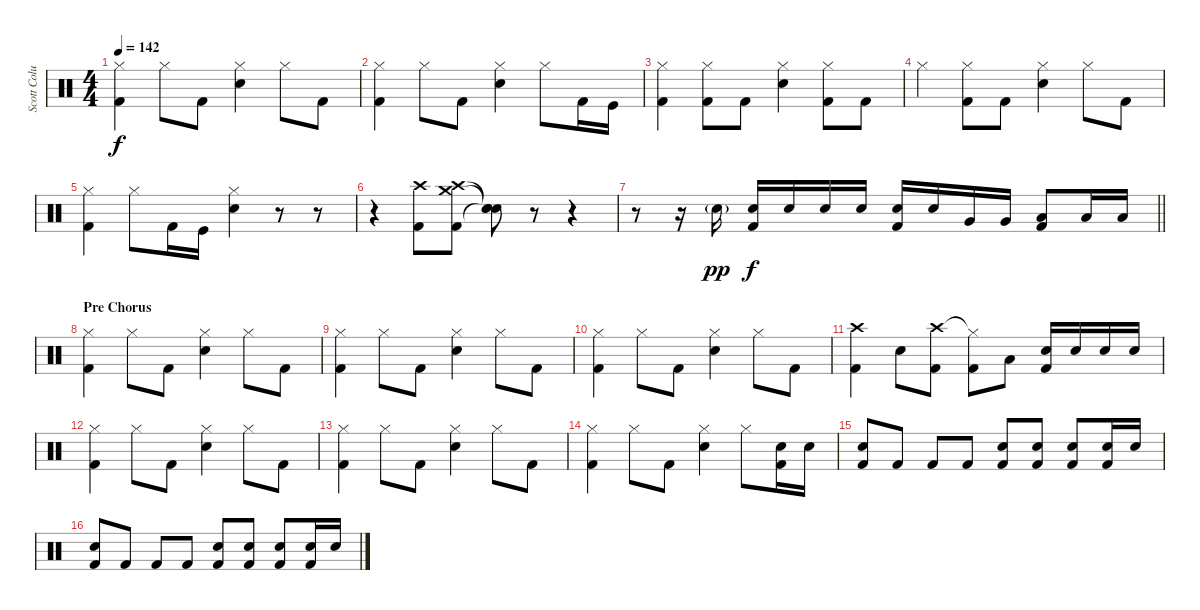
\track ("Scott Columbus" "Scott Colu") {instrument percussion}
\staff {score}
\articulation defaults
\ts (4 4)
\tempo 142
\clef neutral
\ks c
("Hi-Hat (closed)" "Kick (hit) 2").4{dy f} "Hi-Hat (closed)".8 "Kick (hit) 2".8 ("Hi-Hat (closed)" "Snare (hit) 2").4 "Hi-Hat (closed)".8 "Kick (hit) 2".8 |
("Hi-Hat (closed)" "Kick (hit) 2").4 "Hi-Hat (closed)".8 "Kick (hit) 2".8 ("Hi-Hat (closed)" "Snare (hit) 2").4 "Hi-Hat (closed)".8 "Kick (hit) 2".16 "Kick (hit)".16 |
("Hi-Hat (closed)" "Kick (hit) 2").4 ("Hi-Hat (closed)" "Kick (hit) 2").8 "Kick (hit) 2".8 ("Hi-Hat (closed)" "Snare (hit) 2").4 ("Hi-Hat (closed)" "Kick (hit) 2").8 "Kick (hit) 2".8 |
"Hi-Hat (closed)".4 ("Hi-Hat (closed)" "Kick (hit) 2").8 "Kick (hit) 2".8 ("Hi-Hat (closed)" "Snare (hit) 2").4 "Hi-Hat (closed)".8 "Kick (hit) 2".8 |
("Hi-Hat (closed)" "Kick (hit) 2").4 "Hi-Hat (closed)".8 "Kick (hit) 2".16 "Kick (hit)".16 ("Hi-Hat (closed)" "Snare (hit) 2").4 r.8 r.8 |
r.4 ("Crash high (hit)" "Kick (hit) 2").8 ("Crash high (hit)" "Crash medium (hit)" "Kick (hit) 2").8 ("Snare (hit)"{t} "Snare (hit)"{t} "Snare (hit)"{t}).8 r.8 r.4 |
\barLineRight lightlight
r.8 r.16 "Snare (hit) 2"{g}.16{dy pp} ("Snare (hit) 2" "Kick (hit) 2").16{dy f} "Snare (hit) 2".16 "Snare (hit) 2".16 "Snare (hit) 2".16 ("Snare (hit) 2" "Kick (hit) 2").16 "Snare (hit) 2".16 "Very Low Tom (hit)".16 "Very Low Tom (hit)".16 ("Low Floor Tom (hit)" "Kick (hit) 2").8 "Low Floor Tom (hit)".16 "Low Floor Tom (hit)".16 |
\section ("" "Pre Chorus")
("Hi-Hat (closed)" "Kick (hit) 2").4 "Hi-Hat (closed)".8 "Kick (hit) 2".8 ("Hi-Hat (closed)" "Snare (hit) 2").4 "Hi-Hat (closed)".8 "Kick (hit) 2".8 |
("Hi-Hat (closed)" "Kick (hit) 2").4 "Hi-Hat (closed)".8 "Kick (hit) 2".8 ("Hi-Hat (closed)" "Snare (hit) 2").4 "Hi-Hat (closed)".8 "Kick (hit) 2".8 |
("Hi-Hat (closed)" "Kick (hit) 2").4 "Hi-Hat (closed)".8 "Kick (hit) 2".8 ("Hi-Hat (closed)" "Snare (hit) 2").4 "Hi-Hat (closed)".8 "Kick (hit) 2".8 |
("Crash high (hit)" "Kick (hit) 2").4 "Snare (hit) 2".8 ("Crash high (hit)" "Kick (hit) 2").8 ("Hi-Hat (closed)"{t} "Kick (hit) 2").8 "Low Tom (hit)".8 ("Snare (hit) 2" "Kick (hit) 2").16 "Snare (hit) 2".16 "Snare (hit) 2".16 "Snare (hit) 2".16 |
("Hi-Hat (closed)" "Kick (hit) 2").4 "Hi-Hat (closed)".8 "Kick (hit) 2".8 ("Hi-Hat (closed)" "Snare (hit) 2").4 "Hi-Hat (closed)".8 "Kick (hit) 2".8 |
("Hi-Hat (closed)" "Kick (hit) 2").4 "Hi-Hat (closed)".8 "Kick (hit) 2".8 ("Hi-Hat (closed)" "Snare (hit) 2").4 "Hi-Hat (closed)".8 "Kick (hit) 2".8 |
("Hi-Hat (closed)" "Kick (hit) 2").4 "Hi-Hat (closed)".8 "Kick (hit) 2".8 ("Hi-Hat (closed)" "Snare (hit) 2").4 "Hi-Hat (closed)".8 ("Snare (hit) 2" "Kick (hit) 2").16 "Snare (hit) 2".16 |
("Snare (hit) 2" "Kick (hit) 2").8 "Kick (hit) 2".8 "Kick (hit) 2".8 "Kick (hit) 2".8 ("Snare (hit) 2" "Kick (hit) 2").8 ("Snare (hit) 2" "Kick (hit) 2").8 ("Snare (hit) 2" "Kick (hit) 2").8 ("Snare (hit) 2" "Kick (hit) 2").16 "Snare (hit) 2".16 |
("Snare (hit) 2" "Kick (hit) 2").8 "Kick (hit) 2".8 "Kick (hit) 2".8 "Kick (hit) 2".8 ("Snare (hit) 2" "Kick (hit) 2").8 ("Snare (hit) 2" "Kick (hit) 2").8 ("Snare (hit) 2" "Kick (hit) 2").8 ("Snare (hit) 2" "Kick (hit) 2").16 "Snare (hit) 2".16
